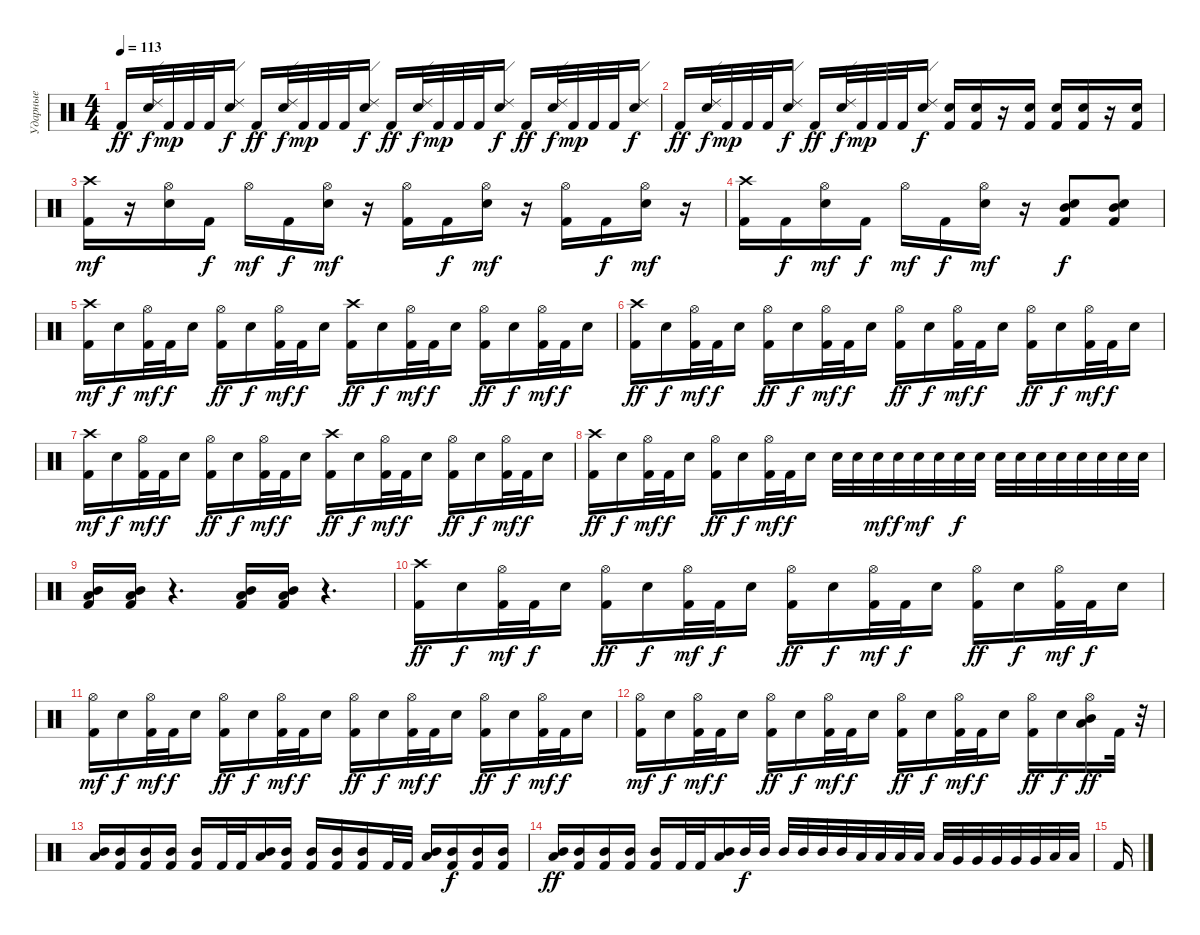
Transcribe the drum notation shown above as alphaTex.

\track ("Ударные" "Ударные") {instrument percussion}
\staff {score}
\articulation defaults
\ts (4 4)
\tempo 113
\clef neutral
\ks c "Kick (hit) 2".16{dy ff}
("Ride (edge) 2" "Electric Snare (hit)").32{dy f} "Kick (hit) 2".32{dy mp} "Kick (hit) 2".32 "Kick (hit) 2".32 ("Ride (edge) 2" "Electric Snare (hit)").16{dy f} "Kick (hit) 2".16{dy ff} ("Ride (edge) 2" "Electric Snare (hit)").32{dy f} "Kick (hit) 2".32{dy mp} "Kick (hit) 2".32 "Kick (hit) 2".32 ("Ride (edge) 2" "Electric Snare (hit)").16{dy f} "Kick (hit) 2".16{dy ff} ("Ride (edge) 2" "Electric Snare (hit)").32{dy f} "Kick (hit) 2".32{dy mp} "Kick (hit) 2".32 "Kick (hit) 2".32 ("Ride (edge) 2" "Electric Snare (hit)").16{dy f} "Kick (hit) 2".16{dy ff} ("Ride (edge) 2" "Electric Snare (hit)").32{dy f} "Kick (hit) 2".32{dy mp} "Kick (hit) 2".32 "Kick (hit) 2".32 ("Ride (edge) 2" "Electric Snare (hit)").16{dy f} |
"Kick (hit) 2".16{dy ff} ("Ride (edge) 2" "Electric Snare (hit)").32{dy f} "Kick (hit) 2".32{dy mp} "Kick (hit) 2".32 "Kick (hit) 2".32 ("Ride (edge) 2" "Electric Snare (hit)").16{dy f} "Kick (hit) 2".16{dy ff} ("Ride (edge) 2" "Electric Snare (hit)").32{dy f} "Kick (hit) 2".32{dy mp} "Kick (hit) 2".32 "Kick (hit) 2".32 ("Ride (edge) 2" "Electric Snare (hit)").16{dy f} ("Electric Snare (hit)" "Kick (hit) 2").16 ("Electric Snare (hit)" "Kick (hit) 2").16 r.16 ("Electric Snare (hit)" "Kick (hit) 2").16 ("Electric Snare (hit)" "Kick (hit) 2").16 ("Electric Snare (hit)" "Kick (hit) 2").16 r.16 ("Electric Snare (hit)" "Kick (hit) 2").16 |
("Crash high (hit)" "Kick (hit) 2").16{dy mf} r.16 ("Hi-Hat (open)" "Electric Snare (hit)").16 "Kick (hit) 2".16{dy f} "Hi-Hat (open)".16{dy mf} "Kick (hit) 2".16{dy f} ("Hi-Hat (open)" "Electric Snare (hit)").16{dy mf} r.16 ("Hi-Hat (open)" "Kick (hit) 2").16 "Kick (hit) 2".16{dy f} ("Hi-Hat (open)" "Electric Snare (hit)").16{dy mf} r.16 ("Hi-Hat (open)" "Kick (hit) 2").16 "Kick (hit) 2".16{dy f} ("Hi-Hat (open)" "Electric Snare (hit)").16{dy mf} r.16 |
("Crash high (hit)" "Kick (hit) 2").16 "Kick (hit) 2".16{dy f} ("Hi-Hat (open)" "Electric Snare (hit)").16{dy mf} "Kick (hit) 2".16{dy f} "Hi-Hat (open)".16{dy mf} "Kick (hit) 2".16{dy f} ("Hi-Hat (open)" "Electric Snare (hit)").16{dy mf} r.16 ("Mid Tom (hit)" "Electric Snare (hit)" "Kick (hit) 2").8{dy f} ("Mid Tom (hit)" "Electric Snare (hit)" "Kick (hit) 2").8 |
("Crash high (hit)" "Kick (hit) 2").16{dy mf} "Electric Snare (hit)".16{dy f} ("Hi-Hat (open)" "Kick (hit) 2").32{dy mf} "Kick (hit) 2".32{dy f} "Electric Snare (hit)".16 ("Hi-Hat (open)" "Kick (hit) 2").16{dy ff} "Electric Snare (hit)".16{dy f} ("Hi-Hat (open)" "Kick (hit) 2").32{dy mf} "Kick (hit) 2".32{dy f} "Electric Snare (hit)".16 ("Crash high (hit)" "Kick (hit) 2").16{dy ff} "Electric Snare (hit)".16{dy f} ("Hi-Hat (open)" "Kick (hit) 2").32{dy mf} "Kick (hit) 2".32{dy f} "Electric Snare (hit)".16 ("Hi-Hat (open)" "Kick (hit) 2").16{dy ff} "Electric Snare (hit)".16{dy f} ("Hi-Hat (open)" "Kick (hit) 2").32{dy mf} "Kick (hit) 2".32{dy f} "Electric Snare (hit)".16 |
("Crash high (hit)" "Kick (hit) 2").16{dy ff} "Electric Snare (hit)".16{dy f} ("Hi-Hat (open)" "Kick (hit) 2").32{dy mf} "Kick (hit) 2".32{dy f} "Electric Snare (hit)".16 ("Hi-Hat (open)" "Kick (hit) 2").16{dy ff} "Electric Snare (hit)".16{dy f} ("Hi-Hat (open)" "Kick (hit) 2").32{dy mf} "Kick (hit) 2".32{dy f} "Electric Snare (hit)".16 ("Hi-Hat (open)" "Kick (hit) 2").16{dy ff} "Electric Snare (hit)".16{dy f} ("Hi-Hat (open)" "Kick (hit) 2").32{dy mf} "Kick (hit) 2".32{dy f} "Electric Snare (hit)".16 ("Hi-Hat (open)" "Kick (hit) 2").16{dy ff} "Electric Snare (hit)".16{dy f} ("Hi-Hat (open)" "Kick (hit) 2").32{dy mf} "Kick (hit) 2".32{dy f} "Electric Snare (hit)".16 |
("Crash high (hit)" "Kick (hit) 2").16{dy mf} "Electric Snare (hit)".16{dy f} ("Hi-Hat (open)" "Kick (hit) 2").32{dy mf} "Kick (hit) 2".32{dy f} "Electric Snare (hit)".16 ("Hi-Hat (open)" "Kick (hit) 2").16{dy ff} "Electric Snare (hit)".16{dy f} ("Hi-Hat (open)" "Kick (hit) 2").32{dy mf} "Kick (hit) 2".32{dy f} "Electric Snare (hit)".16 ("Crash high (hit)" "Kick (hit) 2").16{dy ff} "Electric Snare (hit)".16{dy f} ("Hi-Hat (open)" "Kick (hit) 2").32{dy mf} "Kick (hit) 2".32{dy f} "Electric Snare (hit)".16 ("Hi-Hat (open)" "Kick (hit) 2").16{dy ff} "Electric Snare (hit)".16{dy f} ("Hi-Hat (open)" "Kick (hit) 2").32{dy mf} "Kick (hit) 2".32{dy f} "Electric Snare (hit)".16 |
("Crash high (hit)" "Kick (hit) 2").16{dy ff} "Electric Snare (hit)".16{dy f} ("Hi-Hat (open)" "Kick (hit) 2").32{dy mf} "Kick (hit) 2".32{dy f} "Electric Snare (hit)".16 ("Hi-Hat (open)" "Kick (hit) 2").16{dy ff} "Electric Snare (hit)".16{dy f} ("Hi-Hat (open)" "Kick (hit) 2").32{dy mf} "Kick (hit) 2".32{dy f} "Electric Snare (hit)".16 "Electric Snare (hit)".32 "Electric Snare (hit)".32 "Electric Snare (hit)".32{dy mf} "Electric Snare (hit)".32{dy f} "Electric Snare (hit)".32{dy mf} "Electric Snare (hit)".32 "Electric Snare (hit)".32{dy f} "Electric Snare (hit)".32 "Electric Snare (hit)".32 "Electric Snare (hit)".32 "Electric Snare (hit)".32 "Electric Snare (hit)".32 "Electric Snare (hit)".32 "Electric Snare (hit)".32 "Electric Snare (hit)".32 "Electric Snare (hit)".32 |
("Mid Tom (hit)" "Low Tom (hit)" "Kick (hit) 2").16 ("Mid Tom (hit)" "Low Tom (hit)" "Kick (hit) 2").16 r.4{d} ("Mid Tom (hit)" "Low Tom (hit)" "Kick (hit) 2").16 ("Mid Tom (hit)" "Low Tom (hit)" "Kick (hit) 2").16 r.4{d} |
("Crash high (hit)" "Kick (hit) 2").16{dy ff} "Electric Snare (hit)".16{dy f} ("Hi-Hat (open)" "Kick (hit) 2").32{dy mf} "Kick (hit) 2".32{dy f} "Electric Snare (hit)".16 ("Hi-Hat (open)" "Kick (hit) 2").16{dy ff} "Electric Snare (hit)".16{dy f} ("Hi-Hat (open)" "Kick (hit) 2").32{dy mf} "Kick (hit) 2".32{dy f} "Electric Snare (hit)".16 ("Hi-Hat (open)" "Kick (hit) 2").16{dy ff} "Electric Snare (hit)".16{dy f} ("Hi-Hat (open)" "Kick (hit) 2").32{dy mf} "Kick (hit) 2".32{dy f} "Electric Snare (hit)".16 ("Hi-Hat (open)" "Kick (hit) 2").16{dy ff} "Electric Snare (hit)".16{dy f} ("Hi-Hat (open)" "Kick (hit) 2").32{dy mf} "Kick (hit) 2".32{dy f} "Electric Snare (hit)".16 |
("Hi-Hat (open)" "Kick (hit) 2").16{dy mf} "Electric Snare (hit)".16{dy f} ("Hi-Hat (open)" "Kick (hit) 2").32{dy mf} "Kick (hit) 2".32{dy f} "Electric Snare (hit)".16 ("Hi-Hat (open)" "Kick (hit) 2").16{dy ff} "Electric Snare (hit)".16{dy f} ("Hi-Hat (open)" "Kick (hit) 2").32{dy mf} "Kick (hit) 2".32{dy f} "Electric Snare (hit)".16 ("Hi-Hat (open)" "Kick (hit) 2").16{dy ff} "Electric Snare (hit)".16{dy f} ("Hi-Hat (open)" "Kick (hit) 2").32{dy mf} "Kick (hit) 2".32{dy f} "Electric Snare (hit)".16 ("Hi-Hat (open)" "Kick (hit) 2").16{dy ff} "Electric Snare (hit)".16{dy f} ("Hi-Hat (open)" "Kick (hit) 2").32{dy mf} "Kick (hit) 2".32{dy f} "Electric Snare (hit)".16 |
("Hi-Hat (open)" "Kick (hit) 2").16{dy mf} "Electric Snare (hit)".16{dy f} ("Hi-Hat (open)" "Kick (hit) 2").32{dy mf} "Kick (hit) 2".32{dy f} "Electric Snare (hit)".16 ("Hi-Hat (open)" "Kick (hit) 2").16{dy ff} "Electric Snare (hit)".16{dy f} ("Hi-Hat (open)" "Kick (hit) 2").32{dy mf} "Kick (hit) 2".32{dy f} "Electric Snare (hit)".16 ("Hi-Hat (open)" "Kick (hit) 2").16{dy ff} "Electric Snare (hit)".16{dy f} ("Hi-Hat (open)" "Kick (hit) 2").32{dy mf} "Kick (hit) 2".32{dy f} "Electric Snare (hit)".16 ("Hi-Hat (open)" "Kick (hit) 2").16{dy ff} "Electric Snare (hit)".16{dy f} ("Hi-Hat (open)" "Mid Tom (hit)" "Low Tom (hit)").16{dy ff} "Kick (hit) 2".32 r.32 |
("Mid Tom (hit)" "Low Tom (hit)").16 ("Mid Tom (hit)" "Kick (hit) 2").16 ("Mid Tom (hit)" "Kick (hit) 2").16 ("Mid Tom (hit)" "Kick (hit) 2").16 ("Mid Tom (hit)" "Kick (hit) 2").16 "Kick (hit) 2".32 "Kick (hit) 2".32 ("Mid Tom (hit)" "Low Tom (hit)").16 ("Mid Tom (hit)" "Kick (hit) 2").16 ("Mid Tom (hit)" "Kick (hit) 2").16 ("Mid Tom (hit)" "Kick (hit) 2").16 ("Mid Tom (hit)" "Kick (hit) 2").16 "Kick (hit) 2".32 "Kick (hit) 2".32 ("Mid Tom (hit)" "Low Tom (hit)").16 ("Mid Tom (hit)" "Kick (hit) 2").16{dy f} ("Mid Tom (hit)" "Kick (hit) 2").16 ("Mid Tom (hit)" "Kick (hit) 2").16 |
("Mid Tom (hit)" "Low Tom (hit)").16{dy ff} ("Mid Tom (hit)" "Kick (hit) 2").16 ("Mid Tom (hit)" "Kick (hit) 2").16 ("Mid Tom (hit)" "Kick (hit) 2").16 ("Mid Tom (hit)" "Kick (hit) 2").16 "Kick (hit) 2".32 "Kick (hit) 2".32 ("Mid Tom (hit)" "Low Tom (hit)").16 "Mid Tom (hit)".32{dy f} "Mid Tom (hit)".32 "Mid Tom (hit)".32 "Mid Tom (hit)".32 "Mid Tom (hit)".32 "Mid Tom (hit)".32 "Low Tom (hit)".32 "Low Tom (hit)".32 "Low Tom (hit)".32 "Low Tom (hit)".32 "Low Tom (hit)".32 "Very Low Tom (hit)".32 "Very Low Tom (hit)".32 "Very Low Tom (hit)".32 "Very Low Tom (hit)".32 "Very Low Tom (hit)".32 "Low Floor Tom (hit)".32 "Low Floor Tom (hit)".32 |
"Kick (hit) 2".16
